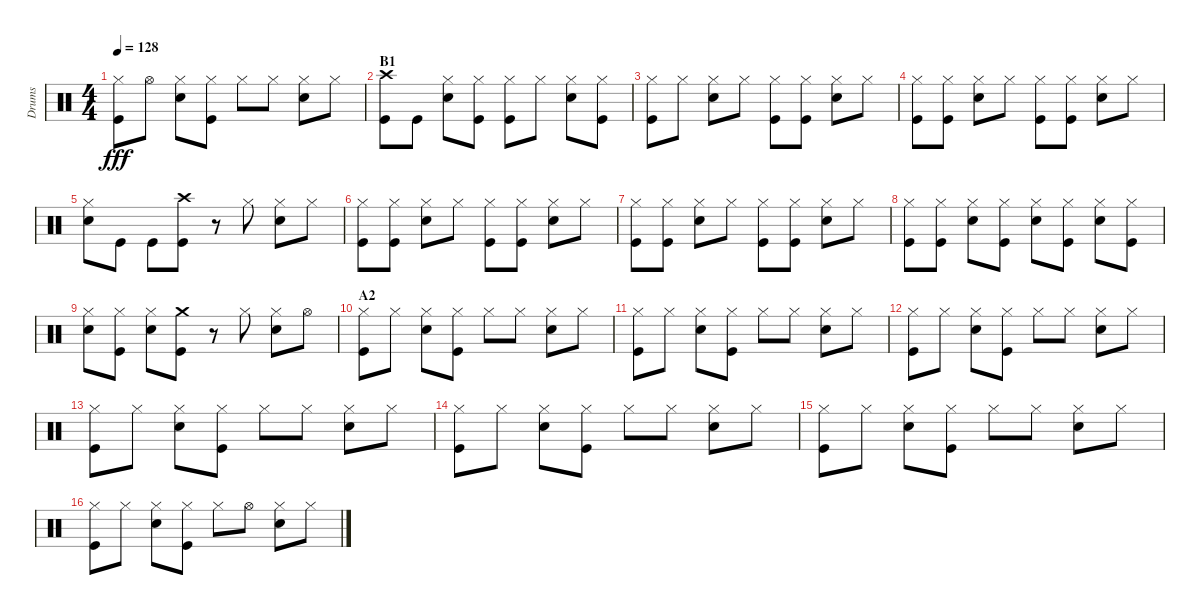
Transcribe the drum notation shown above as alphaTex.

\track ("Drums" "Drums") {instrument percussion}
\staff {score}
\articulation defaults
\ts (4 4)
\tempo 128
\clef neutral
\ks c
("Hi-Hat (closed)" "Kick (hit)").8{dy fff} "Hi-Hat (open)".8 ("Hi-Hat (closed)" "Snare (hit) 2").8 ("Hi-Hat (closed)" "Kick (hit)").8 "Hi-Hat (closed)".8 "Hi-Hat (closed)".8 ("Hi-Hat (closed)" "Snare (hit) 2").8 "Hi-Hat (closed)".8 |
\section ("" "B1")
("Crash high (hit)" "Kick (hit)").8 "Kick (hit)".8 ("Hi-Hat (closed)" "Snare (hit) 2").8 ("Hi-Hat (closed)" "Kick (hit)").8 ("Hi-Hat (closed)" "Kick (hit)").8 "Hi-Hat (closed)".8 ("Hi-Hat (closed)" "Snare (hit) 2").8 ("Hi-Hat (closed)" "Kick (hit)").8 |
("Hi-Hat (closed)" "Kick (hit)").8 "Hi-Hat (closed)".8 ("Hi-Hat (closed)" "Snare (hit) 2").8 "Hi-Hat (closed)".8 ("Hi-Hat (closed)" "Kick (hit)").8 ("Hi-Hat (closed)" "Kick (hit)").8 ("Hi-Hat (closed)" "Snare (hit) 2").8 "Hi-Hat (closed)".8 |
("Hi-Hat (closed)" "Kick (hit)").8 ("Hi-Hat (closed)" "Kick (hit)").8 ("Hi-Hat (closed)" "Snare (hit) 2").8 "Hi-Hat (closed)".8 ("Hi-Hat (closed)" "Kick (hit)").8 ("Hi-Hat (closed)" "Kick (hit)").8 ("Hi-Hat (closed)" "Snare (hit) 2").8 "Hi-Hat (closed)".8 |
("Hi-Hat (closed)" "Snare (hit) 2").8 "Kick (hit)".8 "Kick (hit)".8 ("Crash high (hit)" "Kick (hit)").8 r.8 "Hi-Hat (closed)".8 ("Hi-Hat (closed)" "Snare (hit) 2").8 "Hi-Hat (closed)".8 |
("Hi-Hat (closed)" "Kick (hit)").8 ("Hi-Hat (closed)" "Kick (hit)").8 ("Hi-Hat (closed)" "Snare (hit) 2").8 "Hi-Hat (closed)".8 ("Hi-Hat (closed)" "Kick (hit)").8 ("Hi-Hat (closed)" "Kick (hit)").8 ("Hi-Hat (closed)" "Snare (hit) 2").8 "Hi-Hat (closed)".8 |
("Hi-Hat (closed)" "Kick (hit)").8 ("Hi-Hat (closed)" "Kick (hit)").8 ("Hi-Hat (closed)" "Snare (hit) 2").8 "Hi-Hat (closed)".8 ("Hi-Hat (closed)" "Kick (hit)").8 ("Hi-Hat (closed)" "Kick (hit)").8 ("Hi-Hat (closed)" "Snare (hit) 2").8 "Hi-Hat (closed)".8 |
("Hi-Hat (closed)" "Kick (hit)").8 ("Hi-Hat (closed)" "Kick (hit)").8 ("Hi-Hat (closed)" "Snare (hit) 2").8 ("Hi-Hat (closed)" "Kick (hit)").8 ("Hi-Hat (closed)" "Snare (hit) 2").8 ("Hi-Hat (closed)" "Kick (hit)").8 ("Hi-Hat (closed)" "Snare (hit) 2").8 ("Hi-Hat (closed)" "Kick (hit)").8 |
("Hi-Hat (closed)" "Snare (hit) 2").8 ("Hi-Hat (closed)" "Kick (hit)").8 ("Hi-Hat (closed)" "Snare (hit) 2").8 ("Crash medium (hit)" "Kick (hit)").8 r.8 "Hi-Hat (closed)".8 ("Hi-Hat (closed)" "Snare (hit) 2").8 "Hi-Hat (open)".8 |
\section ("" "A2")
("Hi-Hat (closed)" "Kick (hit)").8 "Hi-Hat (closed)".8 ("Hi-Hat (closed)" "Snare (hit) 2").8 ("Hi-Hat (closed)" "Kick (hit)").8 "Hi-Hat (closed)".8 "Hi-Hat (closed)".8 ("Hi-Hat (closed)" "Snare (hit) 2").8 "Hi-Hat (closed)".8 |
("Hi-Hat (closed)" "Kick (hit)").8 "Hi-Hat (closed)".8 ("Hi-Hat (closed)" "Snare (hit) 2").8 ("Hi-Hat (closed)" "Kick (hit)").8 "Hi-Hat (closed)".8 "Hi-Hat (closed)".8 ("Hi-Hat (closed)" "Snare (hit) 2").8 "Hi-Hat (closed)".8 |
("Hi-Hat (closed)" "Kick (hit)").8 "Hi-Hat (closed)".8 ("Hi-Hat (closed)" "Snare (hit) 2").8 ("Hi-Hat (closed)" "Kick (hit)").8 "Hi-Hat (closed)".8 "Hi-Hat (closed)".8 ("Hi-Hat (closed)" "Snare (hit) 2").8 "Hi-Hat (closed)".8 |
("Hi-Hat (closed)" "Kick (hit)").8 "Hi-Hat (closed)".8 ("Hi-Hat (closed)" "Snare (hit) 2").8 ("Hi-Hat (closed)" "Kick (hit)").8 "Hi-Hat (closed)".8 "Hi-Hat (closed)".8 ("Hi-Hat (closed)" "Snare (hit) 2").8 "Hi-Hat (closed)".8 |
("Hi-Hat (closed)" "Kick (hit)").8 "Hi-Hat (closed)".8 ("Hi-Hat (closed)" "Snare (hit) 2").8 ("Hi-Hat (closed)" "Kick (hit)").8 "Hi-Hat (closed)".8 "Hi-Hat (closed)".8 ("Hi-Hat (closed)" "Snare (hit) 2").8 "Hi-Hat (closed)".8 |
("Hi-Hat (closed)" "Kick (hit)").8 "Hi-Hat (closed)".8 ("Hi-Hat (closed)" "Snare (hit) 2").8 ("Hi-Hat (closed)" "Kick (hit)").8 "Hi-Hat (closed)".8 "Hi-Hat (closed)".8 ("Hi-Hat (closed)" "Snare (hit) 2").8 "Hi-Hat (closed)".8 |
("Hi-Hat (closed)" "Kick (hit)").8 "Hi-Hat (closed)".8 ("Hi-Hat (closed)" "Snare (hit) 2").8 ("Hi-Hat (closed)" "Kick (hit)").8 "Hi-Hat (closed)".8 "Hi-Hat (open)".8 ("Hi-Hat (closed)" "Snare (hit) 2").8 "Hi-Hat (closed)".8
